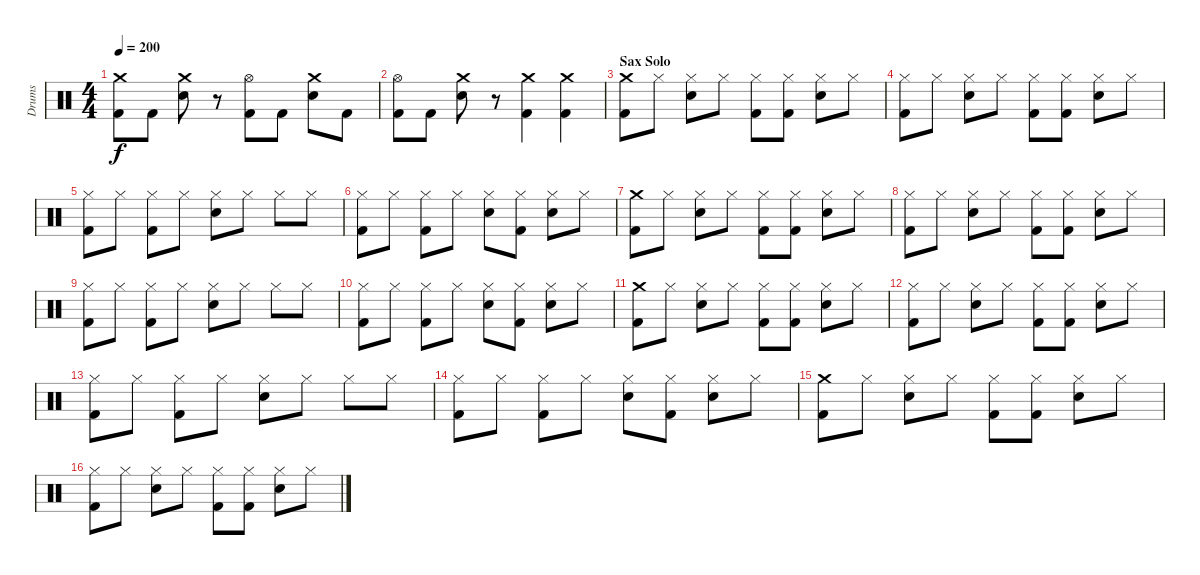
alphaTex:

\track ("Drums" "Drums") {instrument percussion}
\staff {score}
\articulation defaults
\ts (4 4)
\tempo 200
\clef neutral
\ks c
("Crash medium (hit)" "Kick (hit) 2").8{dy f} "Kick (hit) 2".8 ("Crash medium (hit)" "Snare (hit) 2").8 r.8 ("Hi-Hat (open)" "Kick (hit) 2").8 "Kick (hit) 2".8 ("Crash medium (hit)" "Snare (hit) 2").8 "Kick (hit) 2".8 |
("Hi-Hat (open)" "Kick (hit) 2").8 "Kick (hit) 2".8 ("Crash medium (hit)" "Snare (hit) 2").8 r.8 ("Crash medium (hit)" "Kick (hit) 2").4 ("Crash medium (hit)" "Kick (hit) 2").4 |
\section ("" "Sax Solo")
("Crash medium (hit)" "Kick (hit) 2").8 "Hi-Hat (closed)".8 ("Hi-Hat (closed)" "Snare (hit) 2").8 "Hi-Hat (closed)".8 ("Hi-Hat (closed)" "Kick (hit) 2").8 ("Hi-Hat (closed)" "Kick (hit) 2").8 ("Hi-Hat (closed)" "Snare (hit) 2").8 "Hi-Hat (closed)".8 |
("Hi-Hat (closed)" "Kick (hit) 2").8 "Hi-Hat (closed)".8 ("Hi-Hat (closed)" "Snare (hit) 2").8 "Hi-Hat (closed)".8 ("Hi-Hat (closed)" "Kick (hit) 2").8 ("Hi-Hat (closed)" "Kick (hit) 2").8 ("Hi-Hat (closed)" "Snare (hit) 2").8 "Hi-Hat (closed)".8 |
("Hi-Hat (closed)" "Kick (hit) 2").8 "Hi-Hat (closed)".8 ("Hi-Hat (closed)" "Kick (hit) 2").8 "Hi-Hat (closed)".8 ("Hi-Hat (closed)" "Snare (hit) 2").8 "Hi-Hat (closed)".8 "Hi-Hat (closed)".8 "Hi-Hat (closed)".8 |
("Hi-Hat (closed)" "Kick (hit) 2").8 "Hi-Hat (closed)".8 ("Hi-Hat (closed)" "Kick (hit) 2").8 "Hi-Hat (closed)".8 ("Hi-Hat (closed)" "Snare (hit) 2").8 ("Hi-Hat (closed)" "Kick (hit) 2").8 ("Hi-Hat (closed)" "Snare (hit) 2").8 "Hi-Hat (closed)".8 |
("Crash medium (hit)" "Kick (hit) 2").8 "Hi-Hat (closed)".8 ("Hi-Hat (closed)" "Snare (hit) 2").8 "Hi-Hat (closed)".8 ("Hi-Hat (closed)" "Kick (hit) 2").8 ("Hi-Hat (closed)" "Kick (hit) 2").8 ("Hi-Hat (closed)" "Snare (hit) 2").8 "Hi-Hat (closed)".8 |
("Hi-Hat (closed)" "Kick (hit) 2").8 "Hi-Hat (closed)".8 ("Hi-Hat (closed)" "Snare (hit) 2").8 "Hi-Hat (closed)".8 ("Hi-Hat (closed)" "Kick (hit) 2").8 ("Hi-Hat (closed)" "Kick (hit) 2").8 ("Hi-Hat (closed)" "Snare (hit) 2").8 "Hi-Hat (closed)".8 |
("Hi-Hat (closed)" "Kick (hit) 2").8 "Hi-Hat (closed)".8 ("Hi-Hat (closed)" "Kick (hit) 2").8 "Hi-Hat (closed)".8 ("Hi-Hat (closed)" "Snare (hit) 2").8 "Hi-Hat (closed)".8 "Hi-Hat (closed)".8 "Hi-Hat (closed)".8 |
("Hi-Hat (closed)" "Kick (hit) 2").8 "Hi-Hat (closed)".8 ("Hi-Hat (closed)" "Kick (hit) 2").8 "Hi-Hat (closed)".8 ("Hi-Hat (closed)" "Snare (hit) 2").8 ("Hi-Hat (closed)" "Kick (hit) 2").8 ("Hi-Hat (closed)" "Snare (hit) 2").8 "Hi-Hat (closed)".8 |
("Crash medium (hit)" "Kick (hit) 2").8 "Hi-Hat (closed)".8 ("Hi-Hat (closed)" "Snare (hit) 2").8 "Hi-Hat (closed)".8 ("Hi-Hat (closed)" "Kick (hit) 2").8 ("Hi-Hat (closed)" "Kick (hit) 2").8 ("Hi-Hat (closed)" "Snare (hit) 2").8 "Hi-Hat (closed)".8 |
("Hi-Hat (closed)" "Kick (hit) 2").8 "Hi-Hat (closed)".8 ("Hi-Hat (closed)" "Snare (hit) 2").8 "Hi-Hat (closed)".8 ("Hi-Hat (closed)" "Kick (hit) 2").8 ("Hi-Hat (closed)" "Kick (hit) 2").8 ("Hi-Hat (closed)" "Snare (hit) 2").8 "Hi-Hat (closed)".8 |
("Hi-Hat (closed)" "Kick (hit) 2").8 "Hi-Hat (closed)".8 ("Hi-Hat (closed)" "Kick (hit) 2").8 "Hi-Hat (closed)".8 ("Hi-Hat (closed)" "Snare (hit) 2").8 "Hi-Hat (closed)".8 "Hi-Hat (closed)".8 "Hi-Hat (closed)".8 |
("Hi-Hat (closed)" "Kick (hit) 2").8 "Hi-Hat (closed)".8 ("Hi-Hat (closed)" "Kick (hit) 2").8 "Hi-Hat (closed)".8 ("Hi-Hat (closed)" "Snare (hit) 2").8 ("Hi-Hat (closed)" "Kick (hit) 2").8 ("Hi-Hat (closed)" "Snare (hit) 2").8 "Hi-Hat (closed)".8 |
("Crash medium (hit)" "Kick (hit) 2").8 "Hi-Hat (closed)".8 ("Hi-Hat (closed)" "Snare (hit) 2").8 "Hi-Hat (closed)".8 ("Hi-Hat (closed)" "Kick (hit) 2").8 ("Hi-Hat (closed)" "Kick (hit) 2").8 ("Hi-Hat (closed)" "Snare (hit) 2").8 "Hi-Hat (closed)".8 |
("Hi-Hat (closed)" "Kick (hit) 2").8 "Hi-Hat (closed)".8 ("Hi-Hat (closed)" "Snare (hit) 2").8 "Hi-Hat (closed)".8 ("Hi-Hat (closed)" "Kick (hit) 2").8 ("Hi-Hat (closed)" "Kick (hit) 2").8 ("Hi-Hat (closed)" "Snare (hit) 2").8 "Hi-Hat (closed)".8
